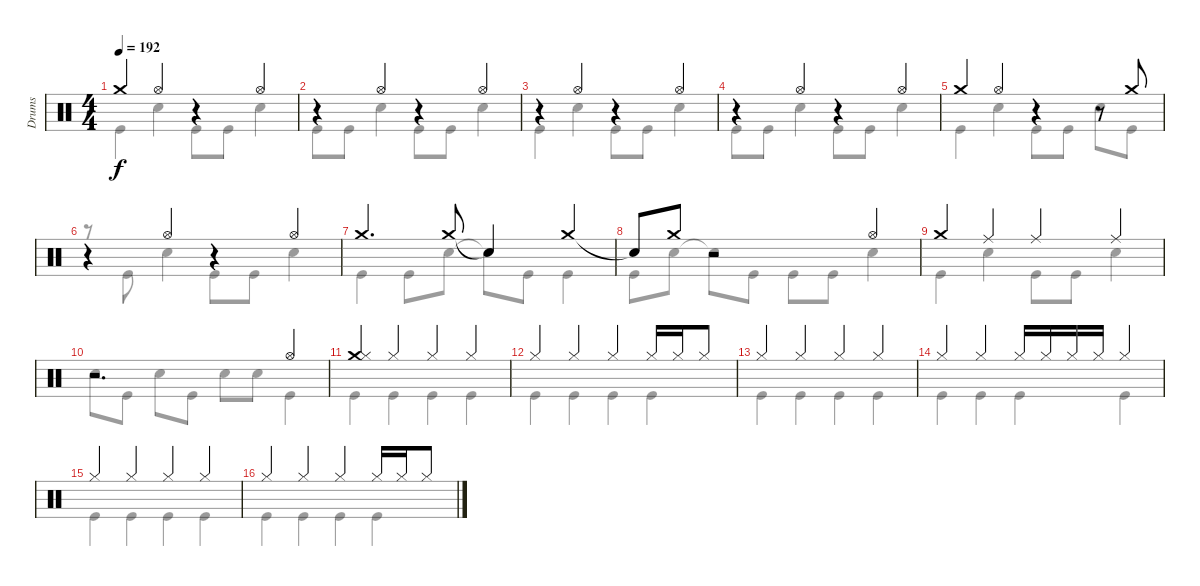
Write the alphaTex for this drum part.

\track ("Drums" "Drums") {instrument percussion}
\staff {score}
\articulation defaults
\voice
\ts (4 4)
\tempo 192
\clef neutral
\ks c "Crash medium (hit)".4{dy f} "Hi-Hat (open)".4
r.4 "Hi-Hat (open)".4 |
r.4 "Hi-Hat (open)".4 r.4 "Hi-Hat (open)".4 |
r.4 "Hi-Hat (open)".4 r.4 "Hi-Hat (open)".4 |
r.4 "Hi-Hat (open)".4 r.4 "Hi-Hat (open)".4 |
"Crash medium (hit)".4 "Hi-Hat (open)".4 r.4 r.8 "Crash medium (hit)".8 |
r.4 "Hi-Hat (open)".4 r.4 "Hi-Hat (open)".4 |
"Crash medium (hit)".4{d} "Crash medium (hit)".8 "Snare (hit)"{t}.4 "Crash medium (hit)".4 |
"Snare (hit)"{t}.8 "Crash medium (hit)".8 r.2 "Hi-Hat (open)".4 |
"Crash medium (hit)".4 "Ride (middle)".4 "Ride (middle)".4 "Ride (middle)".4 |
r.2{d} "Hi-Hat (open)".4 |
("Crash medium (hit)" "Hi-Hat (closed)").4 "Hi-Hat (closed)".4 "Hi-Hat (closed)".4 "Hi-Hat (closed)".4 |
"Hi-Hat (closed)".4 "Hi-Hat (closed)".4 "Hi-Hat (closed)".4 "Hi-Hat (closed)".16 "Hi-Hat (closed)".16 "Hi-Hat (closed)".8 |
"Hi-Hat (closed)".4 "Hi-Hat (closed)".4 "Hi-Hat (closed)".4 "Hi-Hat (closed)".4 |
"Hi-Hat (closed)".4 "Hi-Hat (closed)".4 "Hi-Hat (closed)".16 "Hi-Hat (closed)".16 "Hi-Hat (closed)".16 "Hi-Hat (closed)".16 "Hi-Hat (closed)".4 |
"Hi-Hat (closed)".4 "Hi-Hat (closed)".4 "Hi-Hat (closed)".4 "Hi-Hat (closed)".4 |
"Hi-Hat (closed)".4 "Hi-Hat (closed)".4 "Hi-Hat (closed)".4 "Hi-Hat (closed)".16 "Hi-Hat (closed)".16 "Hi-Hat (closed)".8
\voice
\clef neutral
\ottava regular
\simile none
\ks c "Kick (hit)".4{dy f} "Snare (hit) 2".4 "Kick (hit)".8 "Kick (hit)".8 "Snare (hit) 2".4
|
"Kick (hit)".8 "Kick (hit)".8 "Snare (hit) 2".4 "Kick (hit)".8 "Kick (hit)".8 "Snare (hit) 2".4 |
"Kick (hit)".4 "Snare (hit) 2".4 "Kick (hit)".8 "Kick (hit)".8 "Snare (hit) 2".4 |
"Kick (hit)".8 "Kick (hit)".8 "Snare (hit) 2".4 "Kick (hit)".8 "Kick (hit)".8 "Snare (hit) 2".4 |
"Kick (hit)".4 "Snare (hit) 2".4 "Kick (hit)".8 "Kick (hit)".8 "Snare (hit) 2".8 "Kick (hit)".8 |
r.8 "Kick (hit)".8 "Snare (hit) 2".4 "Kick (hit)".8 "Kick (hit)".8 "Snare (hit) 2".4 |
"Kick (hit)".4 "Kick (hit)".8 "Snare (hit) 2".8 "Snare (hit)"{t}.8 "Kick (hit)".8 "Kick (hit)".4 |
"Kick (hit)".8 "Snare (hit) 2".8 "Snare (hit)"{t}.8 "Kick (hit)".8 "Kick (hit)".8 "Kick (hit)".8 "Snare (hit) 2".4 |
"Kick (hit)".4 "Snare (hit) 2".4 "Kick (hit)".8 "Kick (hit)".8 "Snare (hit) 2".4 |
"Snare (hit) 2".8 "Kick (hit)".8 "Snare (hit) 2".8 "Kick (hit)".8 "Snare (hit) 2".8 "Snare (hit) 2".8 "Kick (hit)".4 |
"Kick (hit)".4 "Kick (hit)".4 "Kick (hit)".4 "Kick (hit)".4 |
"Kick (hit)".4 "Kick (hit)".4 "Kick (hit)".4 "Kick (hit)".4 |
"Kick (hit)".4 "Kick (hit)".4 "Kick (hit)".4 "Kick (hit)".4 |
"Kick (hit)".4 "Kick (hit)".4 "Kick (hit)".4 "Kick (hit)".4 |
"Kick (hit)".4 "Kick (hit)".4 "Kick (hit)".4 "Kick (hit)".4 |
"Kick (hit)".4 "Kick (hit)".4 "Kick (hit)".4 "Kick (hit)".4
